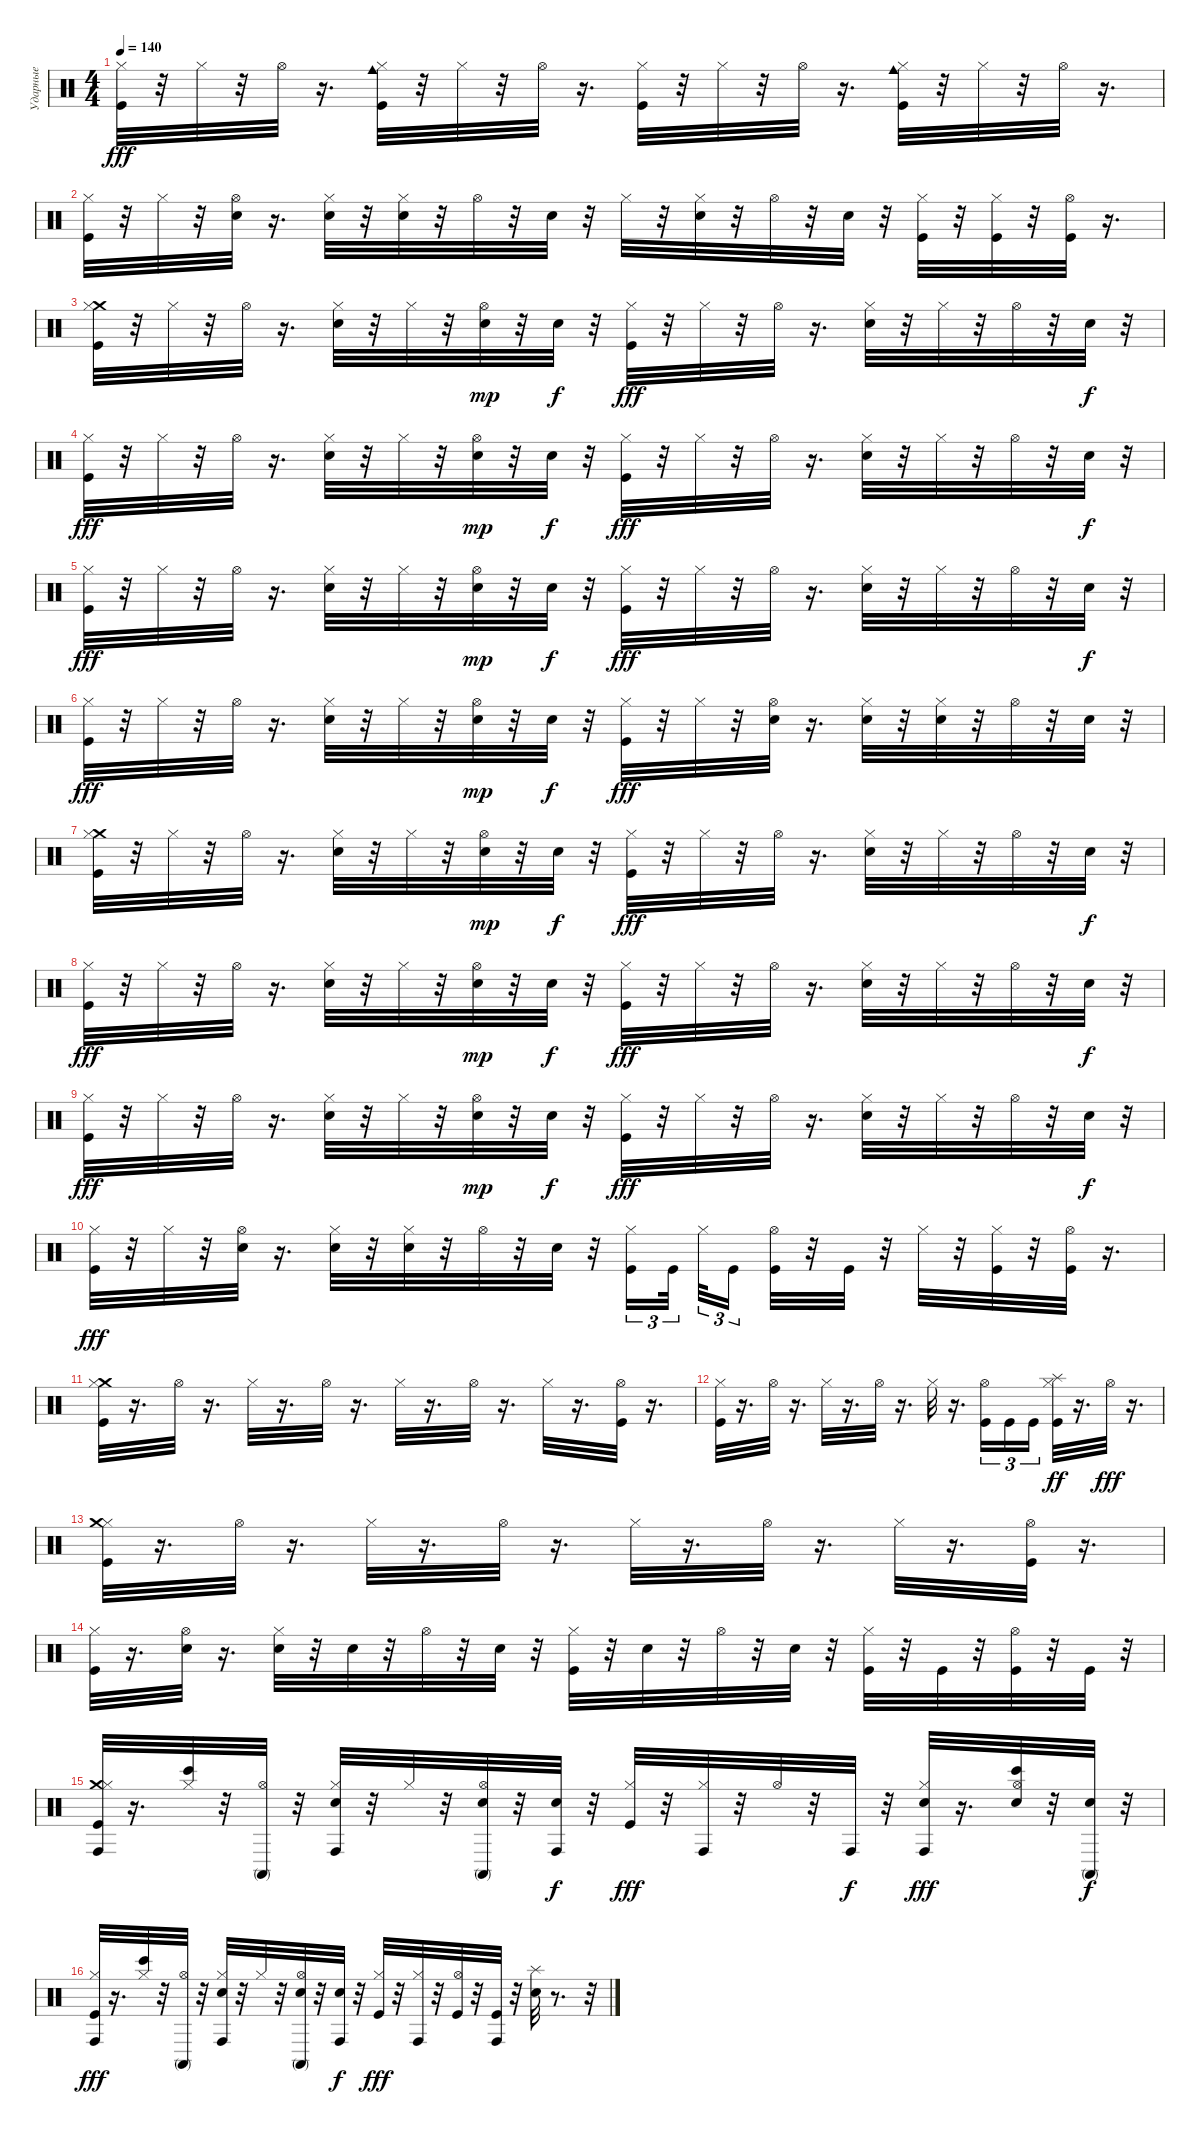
\track ("Ударные" "Ударные") {instrument percussion}
\staff {score}
\articulation defaults
\ts (4 4)
\tempo 140
\clef neutral
\ks c
("Kick (hit)" "Hi-Hat (closed)").32{dy fff} r.32 "Hi-Hat (closed)".32 r.32 "Hi-Hat (open)".32 r.16{d} ("Hi-Hat (closed)" "Kick (hit)" "Cowbell medium (hit)").32 r.32 "Hi-Hat (closed)".32 r.32 "Hi-Hat (open)".32 r.16{d} ("Hi-Hat (closed)" "Kick (hit)").32 r.32 "Hi-Hat (closed)".32 r.32 "Hi-Hat (open)".32 r.16{d} ("Hi-Hat (closed)" "Kick (hit)" "Cowbell medium (hit)").32 r.32 "Hi-Hat (closed)".32 r.32 "Hi-Hat (open)".32 r.16{d} |
("Kick (hit)" "Hi-Hat (closed)").32 r.32 "Hi-Hat (closed)".32 r.32 ("Hi-Hat (open)" "Electric Snare (hit)").32 r.16{d} ("Hi-Hat (closed)" "Electric Snare (hit)").32 r.32 ("Hi-Hat (closed)" "Electric Snare (hit)").32 r.32 "Hi-Hat (open)".32 r.32 "Electric Snare (hit)".32 r.32 "Hi-Hat (closed)".32 r.32 ("Hi-Hat (closed)" "Electric Snare (hit)").32 r.32 "Hi-Hat (open)".32 r.32 "Electric Snare (hit)".32 r.32 ("Hi-Hat (closed)" "Kick (hit)").32 r.32 ("Hi-Hat (closed)" "Kick (hit)").32 r.32 ("Hi-Hat (open)" "Kick (hit)").32 r.16{d} |
("Crash medium (hit)" "Kick (hit)" "Hi-Hat (closed)").32 r.32 "Hi-Hat (closed)".32 r.32 "Hi-Hat (open)".32 r.16{d} ("Electric Snare (hit)" "Hi-Hat (closed)").32 r.32 "Hi-Hat (closed)".32 r.32 ("Hi-Hat (open)" "Electric Snare (hit)").32{dy mp} r.32 "Electric Snare (hit)".32{dy f} r.32 ("Kick (hit)" "Hi-Hat (closed)").32{dy fff} r.32 "Hi-Hat (closed)".32 r.32 "Hi-Hat (open)".32 r.16{d} ("Electric Snare (hit)" "Hi-Hat (closed)").32 r.32 "Hi-Hat (closed)".32 r.32 "Hi-Hat (open)".32 r.32 "Electric Snare (hit)".32{dy f} r.32 |
("Hi-Hat (closed)" "Kick (hit)").32{dy fff} r.32 "Hi-Hat (closed)".32 r.32 "Hi-Hat (open)".32 r.16{d} ("Electric Snare (hit)" "Hi-Hat (closed)").32 r.32 "Hi-Hat (closed)".32 r.32 ("Hi-Hat (open)" "Electric Snare (hit)").32{dy mp} r.32 "Electric Snare (hit)".32{dy f} r.32 ("Kick (hit)" "Hi-Hat (closed)").32{dy fff} r.32 "Hi-Hat (closed)".32 r.32 "Hi-Hat (open)".32 r.16{d} ("Electric Snare (hit)" "Hi-Hat (closed)").32 r.32 "Hi-Hat (closed)".32 r.32 "Hi-Hat (open)".32 r.32 "Electric Snare (hit)".32{dy f} r.32 |
("Hi-Hat (closed)" "Kick (hit)").32{dy fff} r.32 "Hi-Hat (closed)".32 r.32 "Hi-Hat (open)".32 r.16{d} ("Electric Snare (hit)" "Hi-Hat (closed)").32 r.32 "Hi-Hat (closed)".32 r.32 ("Hi-Hat (open)" "Electric Snare (hit)").32{dy mp} r.32 "Electric Snare (hit)".32{dy f} r.32 ("Kick (hit)" "Hi-Hat (closed)").32{dy fff} r.32 "Hi-Hat (closed)".32 r.32 "Hi-Hat (open)".32 r.16{d} ("Electric Snare (hit)" "Hi-Hat (closed)").32 r.32 "Hi-Hat (closed)".32 r.32 "Hi-Hat (open)".32 r.32 "Electric Snare (hit)".32{dy f} r.32 |
("Hi-Hat (closed)" "Kick (hit)").32{dy fff} r.32 "Hi-Hat (closed)".32 r.32 "Hi-Hat (open)".32 r.16{d} ("Electric Snare (hit)" "Hi-Hat (closed)").32 r.32 "Hi-Hat (closed)".32 r.32 ("Hi-Hat (open)" "Electric Snare (hit)").32{dy mp} r.32 "Electric Snare (hit)".32{dy f} r.32 ("Kick (hit)" "Hi-Hat (closed)").32{dy fff} r.32 "Hi-Hat (closed)".32 r.32 ("Hi-Hat (open)" "Electric Snare (hit)").32 r.16{d} ("Hi-Hat (closed)" "Electric Snare (hit)").32 r.32 ("Hi-Hat (closed)" "Electric Snare (hit)").32 r.32 "Hi-Hat (open)".32 r.32 "Electric Snare (hit)".32 r.32 |
("Crash medium (hit)" "Kick (hit)" "Hi-Hat (closed)").32 r.32 "Hi-Hat (closed)".32 r.32 "Hi-Hat (open)".32 r.16{d} ("Electric Snare (hit)" "Hi-Hat (closed)").32 r.32 "Hi-Hat (closed)".32 r.32 ("Hi-Hat (open)" "Electric Snare (hit)").32{dy mp} r.32 "Electric Snare (hit)".32{dy f} r.32 ("Kick (hit)" "Hi-Hat (closed)").32{dy fff} r.32 "Hi-Hat (closed)".32 r.32 "Hi-Hat (open)".32 r.16{d} ("Electric Snare (hit)" "Hi-Hat (closed)").32 r.32 "Hi-Hat (closed)".32 r.32 "Hi-Hat (open)".32 r.32 "Electric Snare (hit)".32{dy f} r.32 |
("Hi-Hat (closed)" "Kick (hit)").32{dy fff} r.32 "Hi-Hat (closed)".32 r.32 "Hi-Hat (open)".32 r.16{d} ("Electric Snare (hit)" "Hi-Hat (closed)").32 r.32 "Hi-Hat (closed)".32 r.32 ("Hi-Hat (open)" "Electric Snare (hit)").32{dy mp} r.32 "Electric Snare (hit)".32{dy f} r.32 ("Kick (hit)" "Hi-Hat (closed)").32{dy fff} r.32 "Hi-Hat (closed)".32 r.32 "Hi-Hat (open)".32 r.16{d} ("Electric Snare (hit)" "Hi-Hat (closed)").32 r.32 "Hi-Hat (closed)".32 r.32 "Hi-Hat (open)".32 r.32 "Electric Snare (hit)".32{dy f} r.32 |
("Hi-Hat (closed)" "Kick (hit)").32{dy fff} r.32 "Hi-Hat (closed)".32 r.32 "Hi-Hat (open)".32 r.16{d} ("Electric Snare (hit)" "Hi-Hat (closed)").32 r.32 "Hi-Hat (closed)".32 r.32 ("Hi-Hat (open)" "Electric Snare (hit)").32{dy mp} r.32 "Electric Snare (hit)".32{dy f} r.32 ("Kick (hit)" "Hi-Hat (closed)").32{dy fff} r.32 "Hi-Hat (closed)".32 r.32 "Hi-Hat (open)".32 r.16{d} ("Electric Snare (hit)" "Hi-Hat (closed)").32 r.32 "Hi-Hat (closed)".32 r.32 "Hi-Hat (open)".32 r.32 "Electric Snare (hit)".32{dy f} r.32 |
("Hi-Hat (closed)" "Kick (hit)").32{dy fff} r.32 "Hi-Hat (closed)".32 r.32 ("Hi-Hat (open)" "Electric Snare (hit)").32 r.16{d} ("Hi-Hat (closed)" "Electric Snare (hit)").32 r.32 ("Hi-Hat (closed)" "Electric Snare (hit)").32 r.32 "Hi-Hat (open)".32 r.32 "Electric Snare (hit)".32 r.32 ("Hi-Hat (closed)" "Kick (hit)").16{tu (3 2)} "Kick (hit)".32{tu (3 2) beam splitsecondary} "Hi-Hat (closed)".32{tu (3 2)} "Kick (hit)".16{tu (3 2) beam splitsecondary} ("Hi-Hat (open)" "Kick (hit)").32 r.32 "Kick (hit)".32 r.32 "Hi-Hat (closed)".32 r.32 ("Hi-Hat (closed)" "Kick (hit)").32 r.32 ("Hi-Hat (open)" "Kick (hit)").32 r.16{d} |
("Crash medium (hit)" "Kick (hit)" "Hi-Hat (closed)").32 r.16{d} "Hi-Hat (open)".32 r.16{d} "Hi-Hat (closed)".32 r.16{d} "Hi-Hat (open)".32 r.16{d} "Hi-Hat (closed)".32 r.16{d} "Hi-Hat (open)".32 r.16{d} "Hi-Hat (closed)".32 r.16{d} ("Kick (hit)" "Hi-Hat (open)").32 r.16{d} |
("Kick (hit)" "Hi-Hat (closed)").32 r.16{d} "Hi-Hat (open)".32 r.16{d} "Hi-Hat (closed)".32 r.16{d} "Hi-Hat (open)".32 r.16{d} "Hi-Hat (closed)".32 r.16{d} ("Hi-Hat (open)" "Kick (hit)").16{tu (3 2)} "Kick (hit)".16{tu (3 2)} "Kick (hit)".16{tu (3 2)} ("Hi-Hat (closed)" "Kick (hit)" "Splash (hit)").32{dy ff} r.16{d} "Hi-Hat (open)".32{dy fff} r.16{d} |
("Hi-Hat (closed)" "Kick (hit)" "Crash medium (hit)").32 r.16{d} "Hi-Hat (open)".32 r.16{d} "Hi-Hat (closed)".32 r.16{d} "Hi-Hat (open)".32 r.16{d} "Hi-Hat (closed)".32 r.16{d} "Hi-Hat (open)".32 r.16{d} "Hi-Hat (closed)".32 r.16{d} ("Hi-Hat (open)" "Kick (hit)").32 r.16{d} |
("Hi-Hat (closed)" "Kick (hit)").32 r.16{d} ("Hi-Hat (open)" "Electric Snare (hit)").32 r.16{d} ("Hi-Hat (closed)" "Electric Snare (hit)").32 r.32 "Electric Snare (hit)".32 r.32 "Hi-Hat (open)".32 r.32 "Electric Snare (hit)".32 r.32 ("Hi-Hat (closed)" "Kick (hit)").32 r.32 "Electric Snare (hit)".32 r.32 "Hi-Hat (open)".32 r.32 "Electric Snare (hit)".32 r.32 ("Hi-Hat (closed)" "Kick (hit)").32 r.32 "Kick (hit)".32 r.32 ("Hi-Hat (open)" "Kick (hit)").32 r.32 "Kick (hit)".32 r.32 |
("Crash medium (hit)" "Kick (hit)" "Hi-Hat (closed)" "Conga high (hit)").32 r.16{d} ("Hi-Hat (closed)" "Bongo High (hit)").32 r.32 ("Hi-Hat (open)" "Conga high (mute)").32 r.32 ("Electric Snare (hit)" "Hi-Hat (closed)" "Conga high (hit)").32 r.32 "Hi-Hat (closed)".32 r.32 ("Electric Snare (hit)" "Hi-Hat (open)" "Conga high (mute)").32 r.32 ("Electric Snare (hit)" "Conga high (hit)").32{dy f} r.32 ("Kick (hit)" "Hi-Hat (closed)").32{dy fff} r.32 ("Hi-Hat (closed)" "Conga high (hit)").32 r.32 "Hi-Hat (open)".32 r.32 "Conga high (hit)".32{dy f} r.32 ("Electric Snare (hit)" "Hi-Hat (closed)" "Conga high (hit)").32{dy fff} r.16{d} ("Electric Snare (hit)" "Hi-Hat (open)" "Bongo High (hit)").32 r.32 ("Electric Snare (hit)" "Conga high (mute)").32{dy f} r.32 |
("Hi-Hat (closed)" "Kick (hit)" "Conga high (hit)").32{dy fff} r.16{d} ("Hi-Hat (closed)" "Bongo High (hit)").32 r.32 ("Hi-Hat (open)" "Conga high (mute)").32 r.32 ("Electric Snare (hit)" "Hi-Hat (closed)" "Conga high (hit)").32 r.32 "Hi-Hat (closed)".32 r.32 ("Electric Snare (hit)" "Hi-Hat (open)" "Conga high (mute)").32 r.32 ("Electric Snare (hit)" "Conga high (hit)").32{dy f} r.32 ("Kick (hit)" "Hi-Hat (closed)").32{dy fff} r.32 ("Hi-Hat (closed)" "Conga high (hit)").32 r.32 ("Hi-Hat (open)" "Kick (hit)").32 r.32 ("Kick (hit)" "Conga high (hit)").32 r.32 ("Electric Snare (hit)" "Splash (hit)").32 r.8{d} r.32
